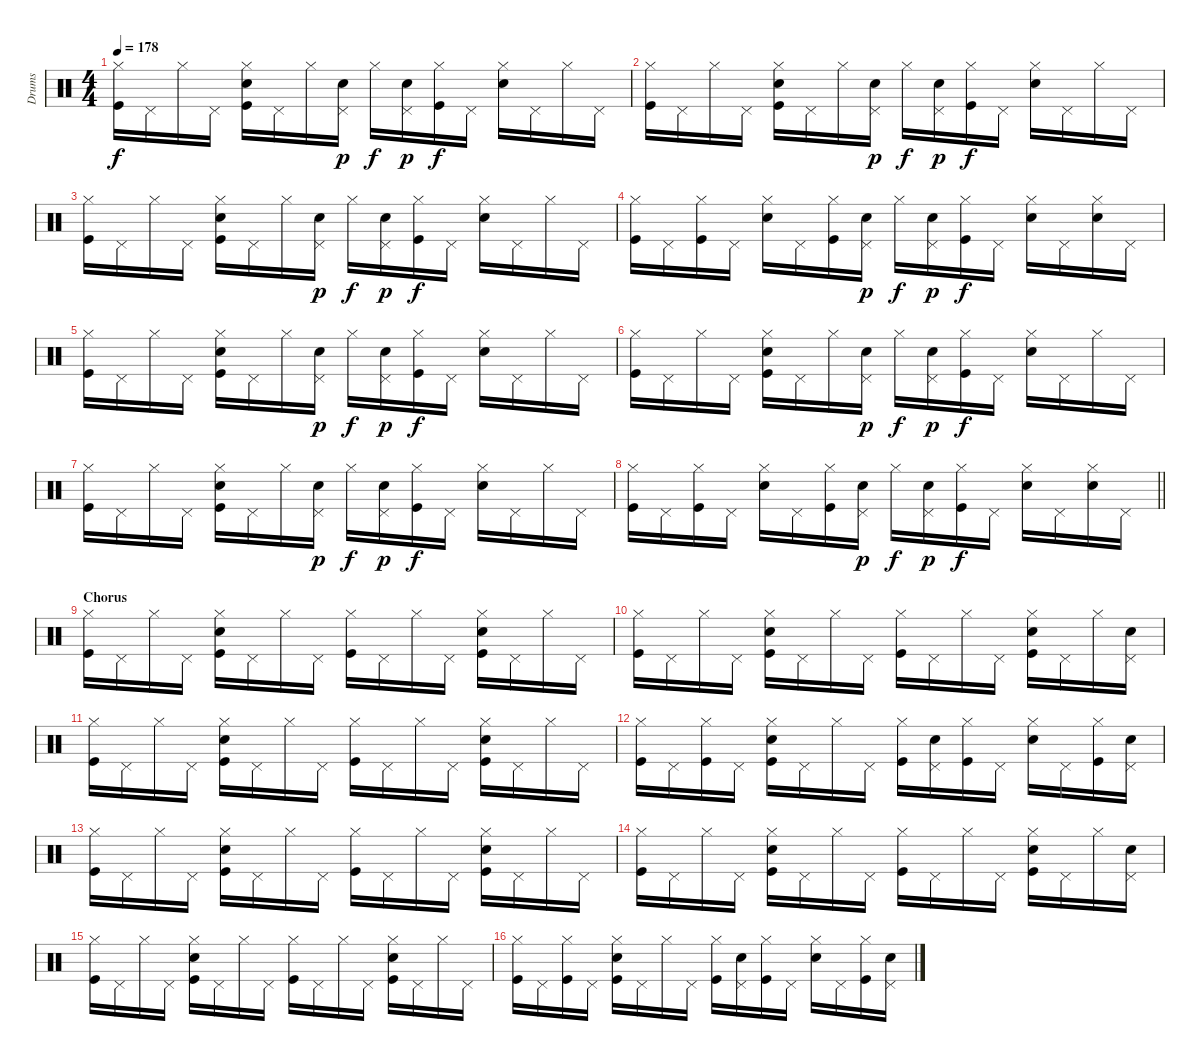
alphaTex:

\track ("Drums" "Drums") {instrument percussion}
\staff {score}
\articulation defaults
\ts (4 4)
\tempo 178
\clef neutral
\ks c
("Kick (hit)" "Hi-Hat (closed)").16{dy f} "Pedal Hi-Hat (hit)".16 "Hi-Hat (closed)".16 "Pedal Hi-Hat (hit)".16 ("Kick (hit)" "Electric Snare (hit)" "Hi-Hat (closed)").16 "Pedal Hi-Hat (hit)".16 "Hi-Hat (closed)".16 ("Electric Snare (hit)" "Pedal Hi-Hat (hit)").16{dy p} "Hi-Hat (closed)".16{dy f} ("Electric Snare (hit)" "Pedal Hi-Hat (hit)").16{dy p} ("Kick (hit)" "Hi-Hat (closed)").16{dy f} "Pedal Hi-Hat (hit)".16 ("Electric Snare (hit)" "Hi-Hat (closed)").16 "Pedal Hi-Hat (hit)".16 "Hi-Hat (closed)".16 "Pedal Hi-Hat (hit)".16 |
("Kick (hit)" "Hi-Hat (closed)").16 "Pedal Hi-Hat (hit)".16 "Hi-Hat (closed)".16 "Pedal Hi-Hat (hit)".16 ("Kick (hit)" "Electric Snare (hit)" "Hi-Hat (closed)").16 "Pedal Hi-Hat (hit)".16 "Hi-Hat (closed)".16 ("Electric Snare (hit)" "Pedal Hi-Hat (hit)").16{dy p} "Hi-Hat (closed)".16{dy f} ("Electric Snare (hit)" "Pedal Hi-Hat (hit)").16{dy p} ("Kick (hit)" "Hi-Hat (closed)").16{dy f} "Pedal Hi-Hat (hit)".16 ("Electric Snare (hit)" "Hi-Hat (closed)").16 "Pedal Hi-Hat (hit)".16 "Hi-Hat (closed)".16 "Pedal Hi-Hat (hit)".16 |
("Kick (hit)" "Hi-Hat (closed)").16 "Pedal Hi-Hat (hit)".16 "Hi-Hat (closed)".16 "Pedal Hi-Hat (hit)".16 ("Kick (hit)" "Electric Snare (hit)" "Hi-Hat (closed)").16 "Pedal Hi-Hat (hit)".16 "Hi-Hat (closed)".16 ("Electric Snare (hit)" "Pedal Hi-Hat (hit)").16{dy p} "Hi-Hat (closed)".16{dy f} ("Electric Snare (hit)" "Pedal Hi-Hat (hit)").16{dy p} ("Kick (hit)" "Hi-Hat (closed)").16{dy f} "Pedal Hi-Hat (hit)".16 ("Electric Snare (hit)" "Hi-Hat (closed)").16 "Pedal Hi-Hat (hit)".16 "Hi-Hat (closed)".16 "Pedal Hi-Hat (hit)".16 |
("Kick (hit)" "Hi-Hat (closed)").16 "Pedal Hi-Hat (hit)".16 ("Kick (hit)" "Hi-Hat (closed)").16 "Pedal Hi-Hat (hit)".16 ("Electric Snare (hit)" "Hi-Hat (closed)").16 "Pedal Hi-Hat (hit)".16 ("Kick (hit)" "Hi-Hat (closed)").16 ("Electric Snare (hit)" "Pedal Hi-Hat (hit)").16{dy p} "Hi-Hat (closed)".16{dy f} ("Electric Snare (hit)" "Pedal Hi-Hat (hit)").16{dy p} ("Kick (hit)" "Hi-Hat (closed)").16{dy f} "Pedal Hi-Hat (hit)".16 ("Electric Snare (hit)" "Hi-Hat (closed)").16 "Pedal Hi-Hat (hit)".16 ("Electric Snare (hit)" "Hi-Hat (closed)").16 "Pedal Hi-Hat (hit)".16 |
("Kick (hit)" "Hi-Hat (closed)").16 "Pedal Hi-Hat (hit)".16 "Hi-Hat (closed)".16 "Pedal Hi-Hat (hit)".16 ("Kick (hit)" "Electric Snare (hit)" "Hi-Hat (closed)").16 "Pedal Hi-Hat (hit)".16 "Hi-Hat (closed)".16 ("Electric Snare (hit)" "Pedal Hi-Hat (hit)").16{dy p} "Hi-Hat (closed)".16{dy f} ("Electric Snare (hit)" "Pedal Hi-Hat (hit)").16{dy p} ("Kick (hit)" "Hi-Hat (closed)").16{dy f} "Pedal Hi-Hat (hit)".16 ("Electric Snare (hit)" "Hi-Hat (closed)").16 "Pedal Hi-Hat (hit)".16 "Hi-Hat (closed)".16 "Pedal Hi-Hat (hit)".16 |
("Kick (hit)" "Hi-Hat (closed)").16 "Pedal Hi-Hat (hit)".16 "Hi-Hat (closed)".16 "Pedal Hi-Hat (hit)".16 ("Kick (hit)" "Electric Snare (hit)" "Hi-Hat (closed)").16 "Pedal Hi-Hat (hit)".16 "Hi-Hat (closed)".16 ("Electric Snare (hit)" "Pedal Hi-Hat (hit)").16{dy p} "Hi-Hat (closed)".16{dy f} ("Electric Snare (hit)" "Pedal Hi-Hat (hit)").16{dy p} ("Kick (hit)" "Hi-Hat (closed)").16{dy f} "Pedal Hi-Hat (hit)".16 ("Electric Snare (hit)" "Hi-Hat (closed)").16 "Pedal Hi-Hat (hit)".16 "Hi-Hat (closed)".16 "Pedal Hi-Hat (hit)".16 |
("Kick (hit)" "Hi-Hat (closed)").16 "Pedal Hi-Hat (hit)".16 "Hi-Hat (closed)".16 "Pedal Hi-Hat (hit)".16 ("Kick (hit)" "Electric Snare (hit)" "Hi-Hat (closed)").16 "Pedal Hi-Hat (hit)".16 "Hi-Hat (closed)".16 ("Electric Snare (hit)" "Pedal Hi-Hat (hit)").16{dy p} "Hi-Hat (closed)".16{dy f} ("Electric Snare (hit)" "Pedal Hi-Hat (hit)").16{dy p} ("Kick (hit)" "Hi-Hat (closed)").16{dy f} "Pedal Hi-Hat (hit)".16 ("Electric Snare (hit)" "Hi-Hat (closed)").16 "Pedal Hi-Hat (hit)".16 "Hi-Hat (closed)".16 "Pedal Hi-Hat (hit)".16 |
\barLineRight lightlight
("Kick (hit)" "Hi-Hat (closed)").16 "Pedal Hi-Hat (hit)".16 ("Kick (hit)" "Hi-Hat (closed)").16 "Pedal Hi-Hat (hit)".16 ("Electric Snare (hit)" "Hi-Hat (closed)").16 "Pedal Hi-Hat (hit)".16 ("Kick (hit)" "Hi-Hat (closed)").16 ("Electric Snare (hit)" "Pedal Hi-Hat (hit)").16{dy p} "Hi-Hat (closed)".16{dy f} ("Electric Snare (hit)" "Pedal Hi-Hat (hit)").16{dy p} ("Kick (hit)" "Hi-Hat (closed)").16{dy f} "Pedal Hi-Hat (hit)".16 ("Electric Snare (hit)" "Hi-Hat (closed)").16 "Pedal Hi-Hat (hit)".16 ("Electric Snare (hit)" "Hi-Hat (closed)").16 "Pedal Hi-Hat (hit)".16 |
\section ("" "Chorus")
("Kick (hit)" "Hi-Hat (closed)").16 "Pedal Hi-Hat (hit)".16 "Hi-Hat (closed)".16 "Pedal Hi-Hat (hit)".16 ("Kick (hit)" "Electric Snare (hit)" "Hi-Hat (closed)").16 "Pedal Hi-Hat (hit)".16 "Hi-Hat (closed)".16 "Pedal Hi-Hat (hit)".16 ("Kick (hit)" "Hi-Hat (closed)").16 "Pedal Hi-Hat (hit)".16 "Hi-Hat (closed)".16 "Pedal Hi-Hat (hit)".16 ("Kick (hit)" "Electric Snare (hit)" "Hi-Hat (closed)").16 "Pedal Hi-Hat (hit)".16 "Hi-Hat (closed)".16 "Pedal Hi-Hat (hit)".16 |
("Kick (hit)" "Hi-Hat (closed)").16 "Pedal Hi-Hat (hit)".16 "Hi-Hat (closed)".16 "Pedal Hi-Hat (hit)".16 ("Kick (hit)" "Electric Snare (hit)" "Hi-Hat (closed)").16 "Pedal Hi-Hat (hit)".16 "Hi-Hat (closed)".16 "Pedal Hi-Hat (hit)".16 ("Kick (hit)" "Hi-Hat (closed)").16 "Pedal Hi-Hat (hit)".16 "Hi-Hat (closed)".16 "Pedal Hi-Hat (hit)".16 ("Kick (hit)" "Electric Snare (hit)" "Hi-Hat (closed)").16 "Pedal Hi-Hat (hit)".16 "Hi-Hat (closed)".16 ("Electric Snare (hit)" "Pedal Hi-Hat (hit)").16 |
("Kick (hit)" "Hi-Hat (closed)").16 "Pedal Hi-Hat (hit)".16 "Hi-Hat (closed)".16 "Pedal Hi-Hat (hit)".16 ("Kick (hit)" "Electric Snare (hit)" "Hi-Hat (closed)").16 "Pedal Hi-Hat (hit)".16 "Hi-Hat (closed)".16 "Pedal Hi-Hat (hit)".16 ("Kick (hit)" "Hi-Hat (closed)").16 "Pedal Hi-Hat (hit)".16 "Hi-Hat (closed)".16 "Pedal Hi-Hat (hit)".16 ("Kick (hit)" "Electric Snare (hit)" "Hi-Hat (closed)").16 "Pedal Hi-Hat (hit)".16 "Hi-Hat (closed)".16 "Pedal Hi-Hat (hit)".16 |
("Kick (hit)" "Hi-Hat (closed)").16 "Pedal Hi-Hat (hit)".16 ("Kick (hit)" "Hi-Hat (closed)").16 "Pedal Hi-Hat (hit)".16 ("Kick (hit)" "Electric Snare (hit)" "Hi-Hat (closed)").16 "Pedal Hi-Hat (hit)".16 "Hi-Hat (closed)".16 "Pedal Hi-Hat (hit)".16 ("Kick (hit)" "Hi-Hat (closed)").16 ("Electric Snare (hit)" "Pedal Hi-Hat (hit)").16 ("Kick (hit)" "Hi-Hat (closed)").16 "Pedal Hi-Hat (hit)".16 ("Electric Snare (hit)" "Hi-Hat (closed)").16 "Pedal Hi-Hat (hit)".16 ("Kick (hit)" "Hi-Hat (closed)").16 ("Electric Snare (hit)" "Pedal Hi-Hat (hit)").16 |
("Kick (hit)" "Hi-Hat (closed)").16 "Pedal Hi-Hat (hit)".16 "Hi-Hat (closed)".16 "Pedal Hi-Hat (hit)".16 ("Kick (hit)" "Electric Snare (hit)" "Hi-Hat (closed)").16 "Pedal Hi-Hat (hit)".16 "Hi-Hat (closed)".16 "Pedal Hi-Hat (hit)".16 ("Kick (hit)" "Hi-Hat (closed)").16 "Pedal Hi-Hat (hit)".16 "Hi-Hat (closed)".16 "Pedal Hi-Hat (hit)".16 ("Kick (hit)" "Electric Snare (hit)" "Hi-Hat (closed)").16 "Pedal Hi-Hat (hit)".16 "Hi-Hat (closed)".16 "Pedal Hi-Hat (hit)".16 |
("Kick (hit)" "Hi-Hat (closed)").16 "Pedal Hi-Hat (hit)".16 "Hi-Hat (closed)".16 "Pedal Hi-Hat (hit)".16 ("Kick (hit)" "Electric Snare (hit)" "Hi-Hat (closed)").16 "Pedal Hi-Hat (hit)".16 "Hi-Hat (closed)".16 "Pedal Hi-Hat (hit)".16 ("Kick (hit)" "Hi-Hat (closed)").16 "Pedal Hi-Hat (hit)".16 "Hi-Hat (closed)".16 "Pedal Hi-Hat (hit)".16 ("Kick (hit)" "Electric Snare (hit)" "Hi-Hat (closed)").16 "Pedal Hi-Hat (hit)".16 "Hi-Hat (closed)".16 ("Electric Snare (hit)" "Pedal Hi-Hat (hit)").16 |
("Kick (hit)" "Hi-Hat (closed)").16 "Pedal Hi-Hat (hit)".16 "Hi-Hat (closed)".16 "Pedal Hi-Hat (hit)".16 ("Kick (hit)" "Electric Snare (hit)" "Hi-Hat (closed)").16 "Pedal Hi-Hat (hit)".16 "Hi-Hat (closed)".16 "Pedal Hi-Hat (hit)".16 ("Kick (hit)" "Hi-Hat (closed)").16 "Pedal Hi-Hat (hit)".16 "Hi-Hat (closed)".16 "Pedal Hi-Hat (hit)".16 ("Kick (hit)" "Electric Snare (hit)" "Hi-Hat (closed)").16 "Pedal Hi-Hat (hit)".16 "Hi-Hat (closed)".16 "Pedal Hi-Hat (hit)".16 |
("Kick (hit)" "Hi-Hat (closed)").16 "Pedal Hi-Hat (hit)".16 ("Kick (hit)" "Hi-Hat (closed)").16 "Pedal Hi-Hat (hit)".16 ("Kick (hit)" "Electric Snare (hit)" "Hi-Hat (closed)").16 "Pedal Hi-Hat (hit)".16 "Hi-Hat (closed)".16 "Pedal Hi-Hat (hit)".16 ("Kick (hit)" "Hi-Hat (closed)").16 ("Electric Snare (hit)" "Pedal Hi-Hat (hit)").16 ("Kick (hit)" "Hi-Hat (closed)").16 "Pedal Hi-Hat (hit)".16 ("Electric Snare (hit)" "Hi-Hat (closed)").16 "Pedal Hi-Hat (hit)".16 ("Kick (hit)" "Hi-Hat (closed)").16 ("Electric Snare (hit)" "Pedal Hi-Hat (hit)").16
